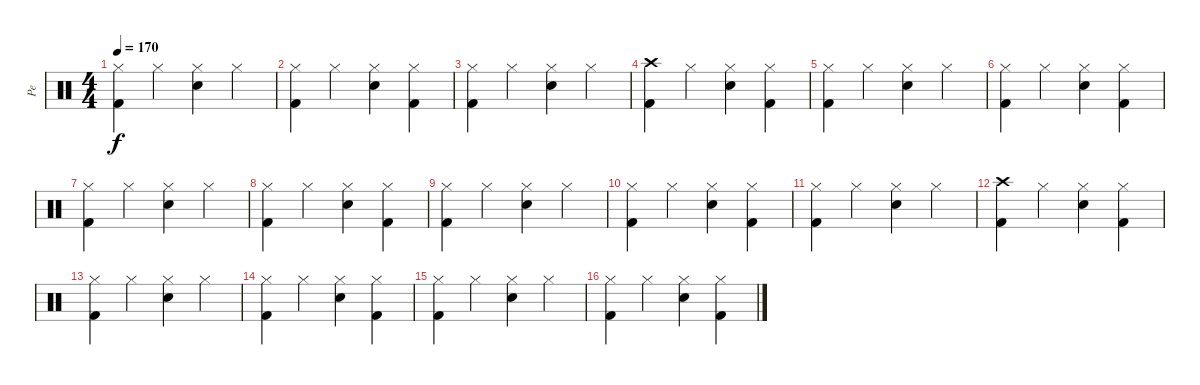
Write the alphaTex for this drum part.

\track ("Pe" "Pe") {instrument percussion}
\staff {score}
\articulation defaults
\ts (4 4)
\tempo 170
\clef neutral
\ks c
("Kick (hit) 2" "Hi-Hat (closed)").4{dy f} "Hi-Hat (closed)".4 ("Snare (hit) 2" "Hi-Hat (closed)").4 "Hi-Hat (closed)".4 |
("Kick (hit) 2" "Hi-Hat (closed)").4 "Hi-Hat (closed)".4 ("Snare (hit) 2" "Hi-Hat (closed)").4 ("Kick (hit) 2" "Hi-Hat (closed)").4 |
("Kick (hit) 2" "Hi-Hat (closed)").4 "Hi-Hat (closed)".4 ("Snare (hit) 2" "Hi-Hat (closed)").4 "Hi-Hat (closed)".4 |
("Kick (hit) 2" "Crash high (hit)").4 "Hi-Hat (closed)".4 ("Snare (hit) 2" "Hi-Hat (closed)").4 ("Kick (hit) 2" "Hi-Hat (closed)").4 |
("Kick (hit) 2" "Hi-Hat (closed)").4 "Hi-Hat (closed)".4 ("Snare (hit) 2" "Hi-Hat (closed)").4 "Hi-Hat (closed)".4 |
("Kick (hit) 2" "Hi-Hat (closed)").4 "Hi-Hat (closed)".4 ("Snare (hit) 2" "Hi-Hat (closed)").4 ("Kick (hit) 2" "Hi-Hat (closed)").4 |
("Kick (hit) 2" "Hi-Hat (closed)").4 "Hi-Hat (closed)".4 ("Snare (hit) 2" "Hi-Hat (closed)").4 "Hi-Hat (closed)".4 |
("Kick (hit) 2" "Hi-Hat (closed)").4 "Hi-Hat (closed)".4 ("Snare (hit) 2" "Hi-Hat (closed)").4 ("Kick (hit) 2" "Hi-Hat (closed)").4 |
("Kick (hit) 2" "Hi-Hat (closed)").4 "Hi-Hat (closed)".4 ("Snare (hit) 2" "Hi-Hat (closed)").4 "Hi-Hat (closed)".4 |
("Kick (hit) 2" "Hi-Hat (closed)").4 "Hi-Hat (closed)".4 ("Snare (hit) 2" "Hi-Hat (closed)").4 ("Kick (hit) 2" "Hi-Hat (closed)").4 |
("Kick (hit) 2" "Hi-Hat (closed)").4 "Hi-Hat (closed)".4 ("Snare (hit) 2" "Hi-Hat (closed)").4 "Hi-Hat (closed)".4 |
("Kick (hit) 2" "Crash high (hit)").4 "Hi-Hat (closed)".4 ("Snare (hit) 2" "Hi-Hat (closed)").4 ("Kick (hit) 2" "Hi-Hat (closed)").4 |
("Kick (hit) 2" "Hi-Hat (closed)").4 "Hi-Hat (closed)".4 ("Snare (hit) 2" "Hi-Hat (closed)").4 "Hi-Hat (closed)".4 |
("Kick (hit) 2" "Hi-Hat (closed)").4 "Hi-Hat (closed)".4 ("Snare (hit) 2" "Hi-Hat (closed)").4 ("Kick (hit) 2" "Hi-Hat (closed)").4 |
("Kick (hit) 2" "Hi-Hat (closed)").4 "Hi-Hat (closed)".4 ("Snare (hit) 2" "Hi-Hat (closed)").4 "Hi-Hat (closed)".4 |
("Kick (hit) 2" "Hi-Hat (closed)").4 "Hi-Hat (closed)".4 ("Snare (hit) 2" "Hi-Hat (closed)").4 ("Kick (hit) 2" "Hi-Hat (closed)").4
